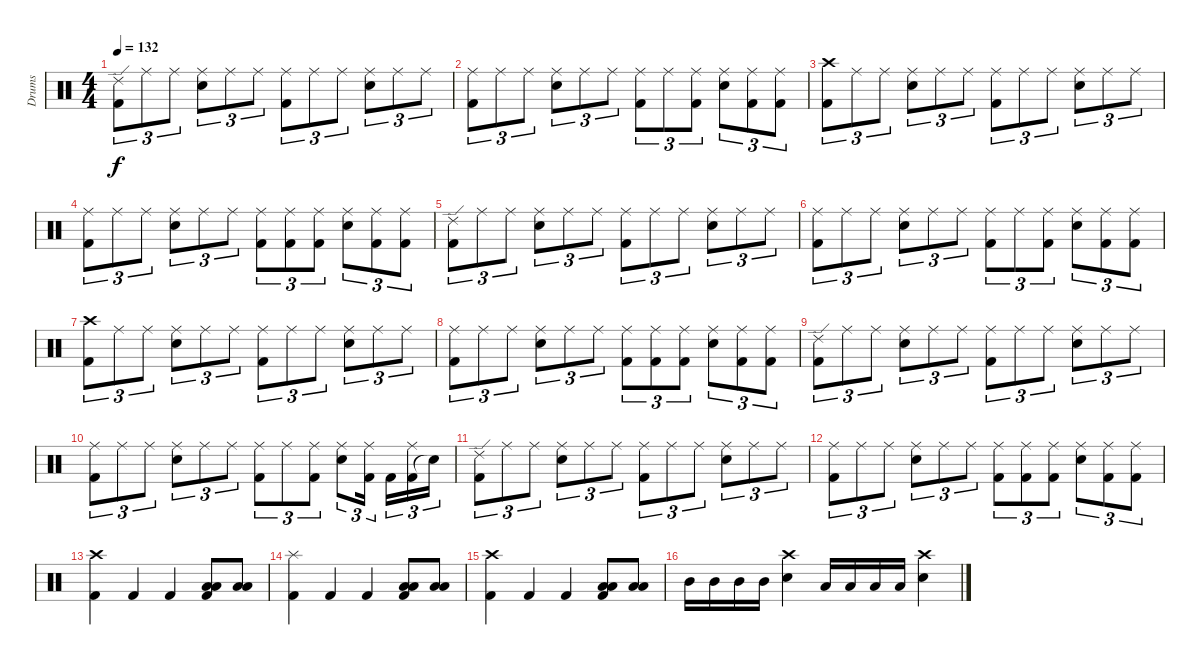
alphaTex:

\track ("Drums" "Drums") {instrument percussion}
\staff {score}
\articulation defaults
\ts (4 4)
\tempo 132
\tempo 139
\tempo 132
\clef neutral
\ks c
("Kick (hit) 2" "Ride (edge) 2").8{tu (3 2) dy f} "Ride (middle)".8{tu (3 2)} "Ride (middle)".8{tu (3 2)} ("Snare (hit) 2" "Ride (middle)").8{tu (3 2)} "Ride (middle)".8{tu (3 2)} "Ride (middle)".8{tu (3 2)} ("Kick (hit) 2" "Ride (middle)").8{tu (3 2)} "Ride (middle)".8{tu (3 2)} "Ride (middle)".8{tu (3 2)} ("Snare (hit) 2" "Ride (middle)").8{tu (3 2)} "Ride (middle)".8{tu (3 2)} "Ride (middle)".8{tu (3 2)} |
("Kick (hit) 2" "Ride (middle)").8{tu (3 2)} "Ride (middle)".8{tu (3 2)} "Ride (middle)".8{tu (3 2)} ("Snare (hit) 2" "Ride (middle)").8{tu (3 2)} "Ride (middle)".8{tu (3 2)} "Ride (middle)".8{tu (3 2)} ("Kick (hit) 2" "Ride (middle)").8{tu (3 2)} "Ride (middle)".8{tu (3 2)} ("Kick (hit) 2" "Ride (middle)").8{tu (3 2)} ("Snare (hit) 2" "Ride (middle)").8{tu (3 2)} ("Kick (hit) 2" "Ride (middle)").8{tu (3 2)} ("Kick (hit) 2" "Ride (middle)").8{tu (3 2)} |
("Kick (hit) 2" "Crash high (hit)").8{tu (3 2)} "Ride (middle)".8{tu (3 2)} "Ride (middle)".8{tu (3 2)} ("Snare (hit) 2" "Ride (middle)").8{tu (3 2)} "Ride (middle)".8{tu (3 2)} "Ride (middle)".8{tu (3 2)} ("Kick (hit) 2" "Ride (middle)").8{tu (3 2)} "Ride (middle)".8{tu (3 2)} "Ride (middle)".8{tu (3 2)} ("Snare (hit) 2" "Ride (middle)").8{tu (3 2)} "Ride (middle)".8{tu (3 2)} "Ride (middle)".8{tu (3 2)} |
("Kick (hit) 2" "Ride (middle)").8{tu (3 2)} "Ride (middle)".8{tu (3 2)} "Ride (middle)".8{tu (3 2)} ("Snare (hit) 2" "Ride (middle)").8{tu (3 2)} "Ride (middle)".8{tu (3 2)} "Ride (middle)".8{tu (3 2)} ("Kick (hit) 2" "Ride (middle)").8{tu (3 2)} ("Kick (hit) 2" "Ride (middle)").8{tu (3 2)} ("Kick (hit) 2" "Ride (middle)").8{tu (3 2)} ("Snare (hit) 2" "Ride (middle)").8{tu (3 2)} ("Kick (hit) 2" "Ride (middle)").8{tu (3 2)} ("Kick (hit) 2" "Ride (middle)").8{tu (3 2)} |
("Kick (hit) 2" "Ride (edge) 2").8{tu (3 2)} "Ride (middle)".8{tu (3 2)} "Ride (middle)".8{tu (3 2)} ("Snare (hit) 2" "Ride (middle)").8{tu (3 2)} "Ride (middle)".8{tu (3 2)} "Ride (middle)".8{tu (3 2)} ("Kick (hit) 2" "Ride (middle)").8{tu (3 2)} "Ride (middle)".8{tu (3 2)} "Ride (middle)".8{tu (3 2)} ("Snare (hit) 2" "Ride (middle)").8{tu (3 2)} "Ride (middle)".8{tu (3 2)} "Ride (middle)".8{tu (3 2)} |
("Kick (hit) 2" "Ride (middle)").8{tu (3 2)} "Ride (middle)".8{tu (3 2)} "Ride (middle)".8{tu (3 2)} ("Snare (hit) 2" "Ride (middle)").8{tu (3 2)} "Ride (middle)".8{tu (3 2)} "Ride (middle)".8{tu (3 2)} ("Kick (hit) 2" "Ride (middle)").8{tu (3 2)} "Ride (middle)".8{tu (3 2)} ("Kick (hit) 2" "Ride (middle)").8{tu (3 2)} ("Snare (hit) 2" "Ride (middle)").8{tu (3 2)} ("Kick (hit) 2" "Ride (middle)").8{tu (3 2)} ("Kick (hit) 2" "Ride (middle)").8{tu (3 2)} |
("Kick (hit) 2" "Crash high (hit)").8{tu (3 2)} "Ride (middle)".8{tu (3 2)} "Ride (middle)".8{tu (3 2)} ("Snare (hit) 2" "Ride (middle)").8{tu (3 2)} "Ride (middle)".8{tu (3 2)} "Ride (middle)".8{tu (3 2)} ("Kick (hit) 2" "Ride (middle)").8{tu (3 2)} "Ride (middle)".8{tu (3 2)} "Ride (middle)".8{tu (3 2)} ("Snare (hit) 2" "Ride (middle)").8{tu (3 2)} "Ride (middle)".8{tu (3 2)} "Ride (middle)".8{tu (3 2)} |
("Kick (hit) 2" "Ride (middle)").8{tu (3 2)} "Ride (middle)".8{tu (3 2)} "Ride (middle)".8{tu (3 2)} ("Snare (hit) 2" "Ride (middle)").8{tu (3 2)} "Ride (middle)".8{tu (3 2)} "Ride (middle)".8{tu (3 2)} ("Kick (hit) 2" "Ride (middle)").8{tu (3 2)} ("Kick (hit) 2" "Ride (middle)").8{tu (3 2)} ("Kick (hit) 2" "Ride (middle)").8{tu (3 2)} ("Snare (hit) 2" "Ride (middle)").8{tu (3 2)} ("Kick (hit) 2" "Ride (middle)").8{tu (3 2)} ("Kick (hit) 2" "Ride (middle)").8{tu (3 2)} |
("Kick (hit) 2" "Ride (edge) 2").8{tu (3 2)} "Ride (middle)".8{tu (3 2)} "Ride (middle)".8{tu (3 2)} ("Snare (hit) 2" "Ride (middle)").8{tu (3 2)} "Ride (middle)".8{tu (3 2)} "Ride (middle)".8{tu (3 2)} ("Kick (hit) 2" "Ride (middle)").8{tu (3 2)} "Ride (middle)".8{tu (3 2)} "Ride (middle)".8{tu (3 2)} ("Snare (hit) 2" "Ride (middle)").8{tu (3 2)} "Ride (middle)".8{tu (3 2)} "Ride (middle)".8{tu (3 2)} |
("Kick (hit) 2" "Ride (middle)").8{tu (3 2)} "Ride (middle)".8{tu (3 2)} "Ride (middle)".8{tu (3 2)} ("Snare (hit) 2" "Ride (middle)").8{tu (3 2)} "Ride (middle)".8{tu (3 2)} "Ride (middle)".8{tu (3 2)} ("Kick (hit) 2" "Ride (middle)").8{tu (3 2)} "Ride (middle)".8{tu (3 2)} ("Kick (hit) 2" "Ride (middle)").8{tu (3 2)} ("Snare (hit) 2" "Ride (middle)").8{tu (3 2)} ("Kick (hit) 2" "Ride (middle)").16{tu (3 2)} "Kick (hit) 2".16{tu (3 2)} ("Kick (hit) 2" "Ride (middle)").16{tu (3 2)} "Snare (hit)"{t}.16{tu (3 2)} |
("Kick (hit) 2" "Ride (edge) 2").8{tu (3 2)} "Ride (middle)".8{tu (3 2)} "Ride (middle)".8{tu (3 2)} ("Snare (hit) 2" "Ride (middle)").8{tu (3 2)} "Ride (middle)".8{tu (3 2)} "Ride (middle)".8{tu (3 2)} ("Kick (hit) 2" "Ride (middle)").8{tu (3 2)} "Ride (middle)".8{tu (3 2)} "Ride (middle)".8{tu (3 2)} ("Snare (hit) 2" "Ride (middle)").8{tu (3 2)} "Ride (middle)".8{tu (3 2)} "Ride (middle)".8{tu (3 2)} |
("Kick (hit) 2" "Ride (middle)").8{tu (3 2)} "Ride (middle)".8{tu (3 2)} "Ride (middle)".8{tu (3 2)} ("Snare (hit) 2" "Ride (middle)").8{tu (3 2)} "Ride (middle)".8{tu (3 2)} "Ride (middle)".8{tu (3 2)} ("Kick (hit) 2" "Ride (middle)").8{tu (3 2)} ("Kick (hit) 2" "Ride (middle)").8{tu (3 2)} ("Kick (hit) 2" "Ride (middle)").8{tu (3 2)} ("Snare (hit) 2" "Ride (middle)").8{tu (3 2)} ("Kick (hit) 2" "Ride (middle)").8{tu (3 2)} ("Kick (hit) 2" "Ride (middle)").8{tu (3 2)} |
("Kick (hit) 2" "Crash high (hit)").4 "Kick (hit) 2".4 "Kick (hit) 2".4 ("Kick (hit) 2" "Low Floor Tom (hit)" "Low Floor Tom (hit)").8 ("Low Floor Tom (hit)" "Low Floor Tom (hit)").8 |
("Kick (hit) 2" "Splash (hit)").4 "Kick (hit) 2".4 "Kick (hit) 2".4 ("Kick (hit) 2" "Low Floor Tom (hit)" "Low Floor Tom (hit)").8 ("Low Floor Tom (hit)" "Low Floor Tom (hit)").8 |
("Kick (hit) 2" "Crash high (hit)").4 "Kick (hit) 2".4 "Kick (hit) 2".4 ("Kick (hit) 2" "Low Floor Tom (hit)" "Low Floor Tom (hit)").8 ("Low Floor Tom (hit)" "Low Floor Tom (hit)").8 |
"Mid Tom (hit)".16 "Mid Tom (hit)".16 "Mid Tom (hit)".16 "Mid Tom (hit)".16 ("Snare (hit) 2" "Crash high (hit)").4 "Low Tom (hit)".16 "Low Tom (hit)".16 "Low Tom (hit)".16 "Low Tom (hit)".16 ("Snare (hit) 2" "Crash high (hit)").4
